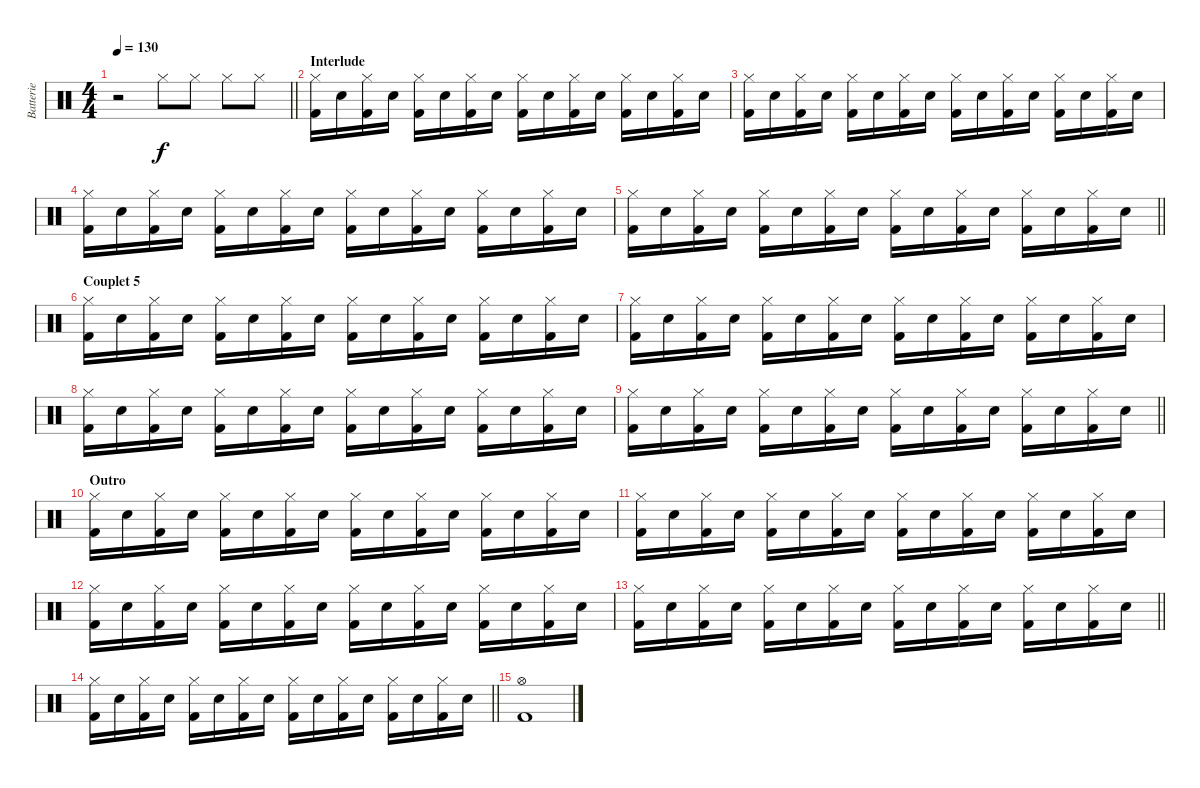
\track ("Batterie" "Batterie") {instrument percussion}
\staff {score}
\articulation defaults
\ts (4 4)
\tempo 130
\clef neutral
\barLineRight lightlight
\ks c
r.2{dy f} "Hi-Hat (closed)".8 "Hi-Hat (closed)".8 "Hi-Hat (closed)".8 "Hi-Hat (closed)".8 |
\section ("" "Interlude")
("Hi-Hat (closed)" "Kick (hit) 2").16 "Electric Snare (hit)".16 ("Hi-Hat (closed)" "Kick (hit) 2").16 "Electric Snare (hit)".16 ("Hi-Hat (closed)" "Kick (hit) 2").16 "Electric Snare (hit)".16 ("Hi-Hat (closed)" "Kick (hit) 2").16 "Electric Snare (hit)".16 ("Hi-Hat (closed)" "Kick (hit) 2").16 "Electric Snare (hit)".16 ("Hi-Hat (closed)" "Kick (hit) 2").16 "Electric Snare (hit)".16 ("Hi-Hat (closed)" "Kick (hit) 2").16 "Electric Snare (hit)".16 ("Hi-Hat (closed)" "Kick (hit) 2").16 "Electric Snare (hit)".16 |
("Hi-Hat (closed)" "Kick (hit) 2").16 "Electric Snare (hit)".16 ("Hi-Hat (closed)" "Kick (hit) 2").16 "Electric Snare (hit)".16 ("Hi-Hat (closed)" "Kick (hit) 2").16 "Electric Snare (hit)".16 ("Hi-Hat (closed)" "Kick (hit) 2").16 "Electric Snare (hit)".16 ("Hi-Hat (closed)" "Kick (hit) 2").16 "Electric Snare (hit)".16 ("Hi-Hat (closed)" "Kick (hit) 2").16 "Electric Snare (hit)".16 ("Hi-Hat (closed)" "Kick (hit) 2").16 "Electric Snare (hit)".16 ("Hi-Hat (closed)" "Kick (hit) 2").16 "Electric Snare (hit)".16 |
("Hi-Hat (closed)" "Kick (hit) 2").16 "Electric Snare (hit)".16 ("Hi-Hat (closed)" "Kick (hit) 2").16 "Electric Snare (hit)".16 ("Hi-Hat (closed)" "Kick (hit) 2").16 "Electric Snare (hit)".16 ("Hi-Hat (closed)" "Kick (hit) 2").16 "Electric Snare (hit)".16 ("Hi-Hat (closed)" "Kick (hit) 2").16 "Electric Snare (hit)".16 ("Hi-Hat (closed)" "Kick (hit) 2").16 "Electric Snare (hit)".16 ("Hi-Hat (closed)" "Kick (hit) 2").16 "Electric Snare (hit)".16 ("Hi-Hat (closed)" "Kick (hit) 2").16 "Electric Snare (hit)".16 |
\barLineRight lightlight
("Hi-Hat (closed)" "Kick (hit) 2").16 "Electric Snare (hit)".16 ("Hi-Hat (closed)" "Kick (hit) 2").16 "Electric Snare (hit)".16 ("Hi-Hat (closed)" "Kick (hit) 2").16 "Electric Snare (hit)".16 ("Hi-Hat (closed)" "Kick (hit) 2").16 "Electric Snare (hit)".16 ("Hi-Hat (closed)" "Kick (hit) 2").16 "Electric Snare (hit)".16 ("Hi-Hat (closed)" "Kick (hit) 2").16 "Electric Snare (hit)".16 ("Hi-Hat (closed)" "Kick (hit) 2").16 "Electric Snare (hit)".16 ("Hi-Hat (closed)" "Kick (hit) 2").16 "Electric Snare (hit)".16 |
\section ("" "Couplet 5")
("Hi-Hat (closed)" "Kick (hit) 2").16 "Electric Snare (hit)".16 ("Hi-Hat (closed)" "Kick (hit) 2").16 "Electric Snare (hit)".16 ("Hi-Hat (closed)" "Kick (hit) 2").16 "Electric Snare (hit)".16 ("Hi-Hat (closed)" "Kick (hit) 2").16 "Electric Snare (hit)".16 ("Hi-Hat (closed)" "Kick (hit) 2").16 "Electric Snare (hit)".16 ("Hi-Hat (closed)" "Kick (hit) 2").16 "Electric Snare (hit)".16 ("Hi-Hat (closed)" "Kick (hit) 2").16 "Electric Snare (hit)".16 ("Hi-Hat (closed)" "Kick (hit) 2").16 "Electric Snare (hit)".16 |
("Hi-Hat (closed)" "Kick (hit) 2").16 "Electric Snare (hit)".16 ("Hi-Hat (closed)" "Kick (hit) 2").16 "Electric Snare (hit)".16 ("Hi-Hat (closed)" "Kick (hit) 2").16 "Electric Snare (hit)".16 ("Hi-Hat (closed)" "Kick (hit) 2").16 "Electric Snare (hit)".16 ("Hi-Hat (closed)" "Kick (hit) 2").16 "Electric Snare (hit)".16 ("Hi-Hat (closed)" "Kick (hit) 2").16 "Electric Snare (hit)".16 ("Hi-Hat (closed)" "Kick (hit) 2").16 "Electric Snare (hit)".16 ("Hi-Hat (closed)" "Kick (hit) 2").16 "Electric Snare (hit)".16 |
("Hi-Hat (closed)" "Kick (hit) 2").16 "Electric Snare (hit)".16 ("Hi-Hat (closed)" "Kick (hit) 2").16 "Electric Snare (hit)".16 ("Hi-Hat (closed)" "Kick (hit) 2").16 "Electric Snare (hit)".16 ("Hi-Hat (closed)" "Kick (hit) 2").16 "Electric Snare (hit)".16 ("Hi-Hat (closed)" "Kick (hit) 2").16 "Electric Snare (hit)".16 ("Hi-Hat (closed)" "Kick (hit) 2").16 "Electric Snare (hit)".16 ("Hi-Hat (closed)" "Kick (hit) 2").16 "Electric Snare (hit)".16 ("Hi-Hat (closed)" "Kick (hit) 2").16 "Electric Snare (hit)".16 |
\barLineRight lightlight
("Hi-Hat (closed)" "Kick (hit) 2").16 "Electric Snare (hit)".16 ("Hi-Hat (closed)" "Kick (hit) 2").16 "Electric Snare (hit)".16 ("Hi-Hat (closed)" "Kick (hit) 2").16 "Electric Snare (hit)".16 ("Hi-Hat (closed)" "Kick (hit) 2").16 "Electric Snare (hit)".16 ("Hi-Hat (closed)" "Kick (hit) 2").16 "Electric Snare (hit)".16 ("Hi-Hat (closed)" "Kick (hit) 2").16 "Electric Snare (hit)".16 ("Hi-Hat (closed)" "Kick (hit) 2").16 "Electric Snare (hit)".16 ("Hi-Hat (closed)" "Kick (hit) 2").16 "Electric Snare (hit)".16 |
\section ("" "Outro")
("Hi-Hat (closed)" "Kick (hit) 2").16 "Electric Snare (hit)".16 ("Hi-Hat (closed)" "Kick (hit) 2").16 "Electric Snare (hit)".16 ("Hi-Hat (closed)" "Kick (hit) 2").16 "Electric Snare (hit)".16 ("Hi-Hat (closed)" "Kick (hit) 2").16 "Electric Snare (hit)".16 ("Hi-Hat (closed)" "Kick (hit) 2").16 "Electric Snare (hit)".16 ("Hi-Hat (closed)" "Kick (hit) 2").16 "Electric Snare (hit)".16 ("Hi-Hat (closed)" "Kick (hit) 2").16 "Electric Snare (hit)".16 ("Hi-Hat (closed)" "Kick (hit) 2").16 "Electric Snare (hit)".16 |
("Hi-Hat (closed)" "Kick (hit) 2").16 "Electric Snare (hit)".16 ("Hi-Hat (closed)" "Kick (hit) 2").16 "Electric Snare (hit)".16 ("Hi-Hat (closed)" "Kick (hit) 2").16 "Electric Snare (hit)".16 ("Hi-Hat (closed)" "Kick (hit) 2").16 "Electric Snare (hit)".16 ("Hi-Hat (closed)" "Kick (hit) 2").16 "Electric Snare (hit)".16 ("Hi-Hat (closed)" "Kick (hit) 2").16 "Electric Snare (hit)".16 ("Hi-Hat (closed)" "Kick (hit) 2").16 "Electric Snare (hit)".16 ("Hi-Hat (closed)" "Kick (hit) 2").16 "Electric Snare (hit)".16 |
("Hi-Hat (closed)" "Kick (hit) 2").16 "Electric Snare (hit)".16 ("Hi-Hat (closed)" "Kick (hit) 2").16 "Electric Snare (hit)".16 ("Hi-Hat (closed)" "Kick (hit) 2").16 "Electric Snare (hit)".16 ("Hi-Hat (closed)" "Kick (hit) 2").16 "Electric Snare (hit)".16 ("Hi-Hat (closed)" "Kick (hit) 2").16 "Electric Snare (hit)".16 ("Hi-Hat (closed)" "Kick (hit) 2").16 "Electric Snare (hit)".16 ("Hi-Hat (closed)" "Kick (hit) 2").16 "Electric Snare (hit)".16 ("Hi-Hat (closed)" "Kick (hit) 2").16 "Electric Snare (hit)".16 |
\barLineRight lightlight
("Hi-Hat (closed)" "Kick (hit) 2").16 "Electric Snare (hit)".16 ("Hi-Hat (closed)" "Kick (hit) 2").16 "Electric Snare (hit)".16 ("Hi-Hat (closed)" "Kick (hit) 2").16 "Electric Snare (hit)".16 ("Hi-Hat (closed)" "Kick (hit) 2").16 "Electric Snare (hit)".16 ("Hi-Hat (closed)" "Kick (hit) 2").16 "Electric Snare (hit)".16 ("Hi-Hat (closed)" "Kick (hit) 2").16 "Electric Snare (hit)".16 ("Hi-Hat (closed)" "Kick (hit) 2").16 "Electric Snare (hit)".16 ("Hi-Hat (closed)" "Kick (hit) 2").16 "Electric Snare (hit)".16 |
\barLineRight lightlight
("Hi-Hat (closed)" "Kick (hit) 2").16 "Electric Snare (hit)".16 ("Hi-Hat (closed)" "Kick (hit) 2").16 "Electric Snare (hit)".16 ("Hi-Hat (closed)" "Kick (hit) 2").16 "Electric Snare (hit)".16 ("Hi-Hat (closed)" "Kick (hit) 2").16 "Electric Snare (hit)".16 ("Hi-Hat (closed)" "Kick (hit) 2").16 "Electric Snare (hit)".16 ("Hi-Hat (closed)" "Kick (hit) 2").16 "Electric Snare (hit)".16 ("Hi-Hat (closed)" "Kick (hit) 2").16 "Electric Snare (hit)".16 ("Hi-Hat (closed)" "Kick (hit) 2").16 "Electric Snare (hit)".16 |
("Hi-Hat (open)" "Kick (hit) 2").1
